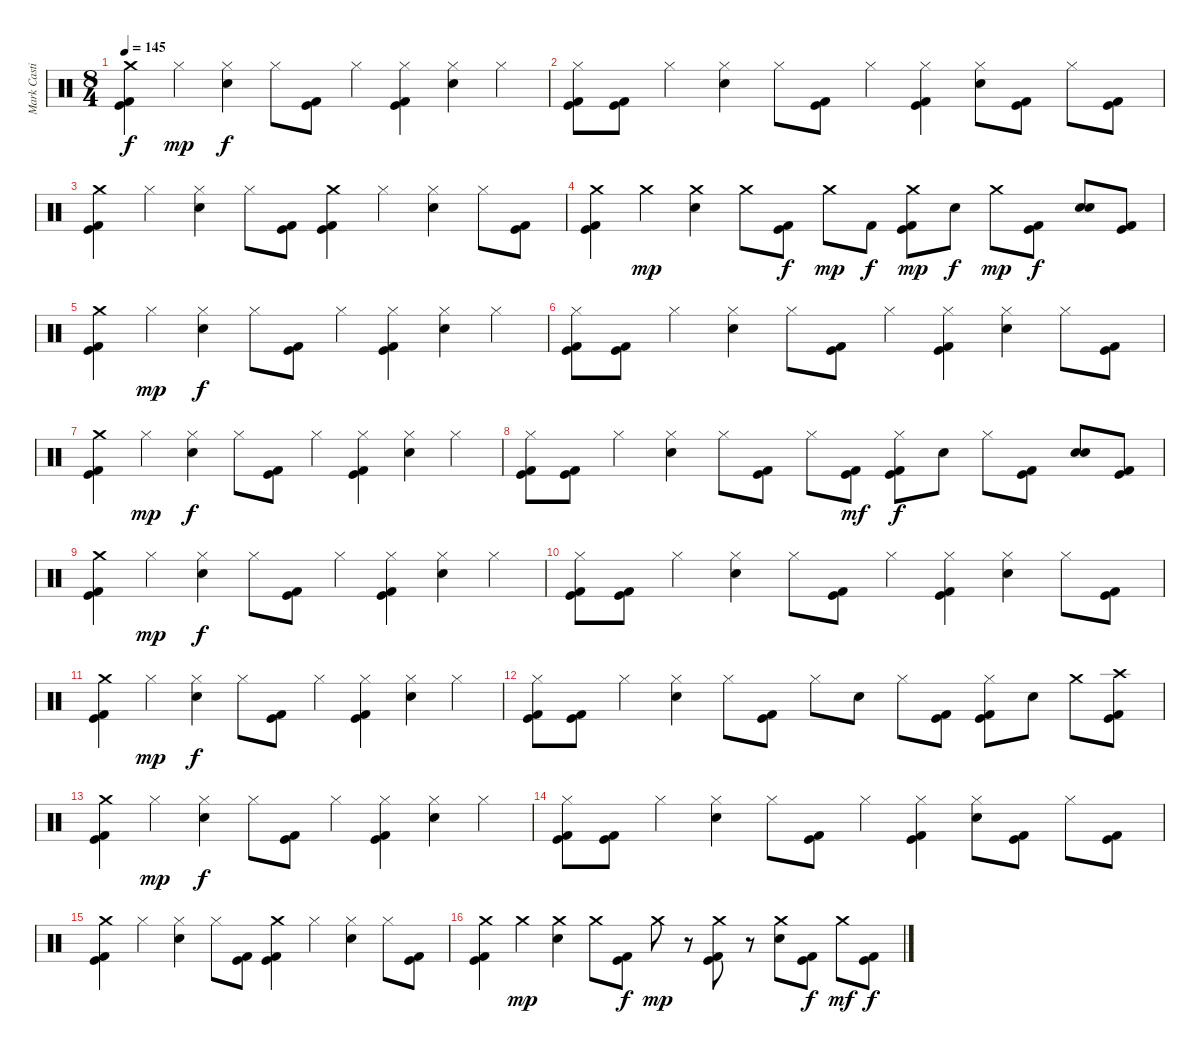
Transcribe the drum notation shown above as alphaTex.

\track ("Mark Castillo" "Mark Casti") {instrument percussion}
\staff {score}
\articulation defaults
\ts (8 4)
\tempo 145
\clef neutral
\ks c
("Crash medium (hit)" "Kick (hit)" "Kick (hit) 2").4{dy f} "Hi-Hat (closed)".4{dy mp} ("Hi-Hat (closed)" "Electric Snare (hit)").4{dy f} "Hi-Hat (closed)".8 ("Kick (hit)" "Kick (hit) 2").8 "Hi-Hat (closed)".4 ("Hi-Hat (closed)" "Kick (hit)" "Kick (hit) 2").4 ("Hi-Hat (closed)" "Electric Snare (hit)").4 "Hi-Hat (closed)".4 |
("Hi-Hat (closed)" "Kick (hit)" "Kick (hit) 2").8 ("Kick (hit)" "Kick (hit) 2").8 "Hi-Hat (closed)".4 ("Hi-Hat (closed)" "Electric Snare (hit)").4 "Hi-Hat (closed)".8 ("Kick (hit)" "Kick (hit) 2").8 "Hi-Hat (closed)".4 ("Hi-Hat (closed)" "Kick (hit)" "Kick (hit) 2").4 ("Hi-Hat (closed)" "Electric Snare (hit)").8 ("Kick (hit)" "Kick (hit) 2").8 "Hi-Hat (closed)".8 ("Kick (hit)" "Kick (hit) 2").8 |
("Crash medium (hit)" "Kick (hit)" "Kick (hit) 2").4 "Hi-Hat (closed)".4 ("Hi-Hat (closed)" "Electric Snare (hit)").4 "Hi-Hat (closed)".8 ("Kick (hit)" "Kick (hit) 2").8 ("Crash medium (hit)" "Kick (hit)" "Kick (hit) 2").4 "Hi-Hat (closed)".4 ("Hi-Hat (closed)" "Electric Snare (hit)").4 "Hi-Hat (closed)".8 ("Kick (hit)" "Kick (hit) 2").8 |
("Crash medium (hit)" "Kick (hit)" "Kick (hit) 2").4 "Crash medium (hit)".4{dy mp} ("Crash medium (hit)" "Electric Snare (hit)").4 "Crash medium (hit)".8 ("Kick (hit)" "Kick (hit) 2").8{dy f} "Crash medium (hit)".8{dy mp} "Kick (hit) 2".8{dy f} ("Crash medium (hit)" "Kick (hit)" "Kick (hit) 2").8{dy mp} "Electric Snare (hit)".8{dy f} "Crash medium (hit)".8{dy mp} ("Kick (hit)" "Kick (hit) 2").8{dy f} ("Electric Snare (hit)" "Electric Snare (hit)").8{bu 240} ("Kick (hit)" "Kick (hit) 2").8 |
("Crash medium (hit)" "Kick (hit)" "Kick (hit) 2").4 "Hi-Hat (closed)".4{dy mp} ("Hi-Hat (closed)" "Electric Snare (hit)").4{dy f} "Hi-Hat (closed)".8 ("Kick (hit)" "Kick (hit) 2").8 "Hi-Hat (closed)".4 ("Hi-Hat (closed)" "Kick (hit)" "Kick (hit) 2").4 ("Hi-Hat (closed)" "Electric Snare (hit)").4 "Hi-Hat (closed)".4 |
("Hi-Hat (closed)" "Kick (hit)" "Kick (hit) 2").8 ("Kick (hit)" "Kick (hit) 2").8 "Hi-Hat (closed)".4 ("Hi-Hat (closed)" "Electric Snare (hit)").4 "Hi-Hat (closed)".8 ("Kick (hit)" "Kick (hit) 2").8 "Hi-Hat (closed)".4 ("Hi-Hat (closed)" "Kick (hit)" "Kick (hit) 2").4 ("Hi-Hat (closed)" "Electric Snare (hit)").4 "Hi-Hat (closed)".8 ("Kick (hit)" "Kick (hit) 2").8 |
("Crash medium (hit)" "Kick (hit)" "Kick (hit) 2").4 "Hi-Hat (closed)".4{dy mp} ("Hi-Hat (closed)" "Electric Snare (hit)").4{dy f} "Hi-Hat (closed)".8 ("Kick (hit)" "Kick (hit) 2").8 "Hi-Hat (closed)".4 ("Hi-Hat (closed)" "Kick (hit)" "Kick (hit) 2").4 ("Hi-Hat (closed)" "Electric Snare (hit)").4 "Hi-Hat (closed)".4 |
("Hi-Hat (closed)" "Kick (hit)" "Kick (hit) 2").8 ("Kick (hit)" "Kick (hit) 2").8 "Hi-Hat (closed)".4 ("Hi-Hat (closed)" "Electric Snare (hit)").4 "Hi-Hat (closed)".8 ("Kick (hit)" "Kick (hit) 2").8 "Hi-Hat (closed)".8 ("Kick (hit)" "Kick (hit) 2").8{dy mf} ("Hi-Hat (closed)" "Kick (hit)" "Kick (hit) 2").8{dy f} "Electric Snare (hit)".8 "Hi-Hat (closed)".8 ("Kick (hit)" "Kick (hit) 2").8 ("Electric Snare (hit)" "Electric Snare (hit)").8{bu 240} ("Kick (hit)" "Kick (hit) 2").8 |
("Crash medium (hit)" "Kick (hit)" "Kick (hit) 2").4 "Hi-Hat (closed)".4{dy mp} ("Hi-Hat (closed)" "Electric Snare (hit)").4{dy f} "Hi-Hat (closed)".8 ("Kick (hit)" "Kick (hit) 2").8 "Hi-Hat (closed)".4 ("Hi-Hat (closed)" "Kick (hit)" "Kick (hit) 2").4 ("Hi-Hat (closed)" "Electric Snare (hit)").4 "Hi-Hat (closed)".4 |
("Hi-Hat (closed)" "Kick (hit)" "Kick (hit) 2").8 ("Kick (hit)" "Kick (hit) 2").8 "Hi-Hat (closed)".4 ("Hi-Hat (closed)" "Electric Snare (hit)").4 "Hi-Hat (closed)".8 ("Kick (hit)" "Kick (hit) 2").8 "Hi-Hat (closed)".4 ("Hi-Hat (closed)" "Kick (hit)" "Kick (hit) 2").4 ("Hi-Hat (closed)" "Electric Snare (hit)").4 "Hi-Hat (closed)".8 ("Kick (hit)" "Kick (hit) 2").8 |
("Crash medium (hit)" "Kick (hit)" "Kick (hit) 2").4 "Hi-Hat (closed)".4{dy mp} ("Hi-Hat (closed)" "Electric Snare (hit)").4{dy f} "Hi-Hat (closed)".8 ("Kick (hit)" "Kick (hit) 2").8 "Hi-Hat (closed)".4 ("Hi-Hat (closed)" "Kick (hit)" "Kick (hit) 2").4 ("Hi-Hat (closed)" "Electric Snare (hit)").4 "Hi-Hat (closed)".4 |
("Hi-Hat (closed)" "Kick (hit)" "Kick (hit) 2").8 ("Kick (hit)" "Kick (hit) 2").8 "Hi-Hat (closed)".4 ("Hi-Hat (closed)" "Electric Snare (hit)").4 "Hi-Hat (closed)".8 ("Kick (hit)" "Kick (hit) 2").8 "Hi-Hat (closed)".8 "Electric Snare (hit)".8 "Hi-Hat (closed)".8 ("Kick (hit)" "Kick (hit) 2").8 ("Hi-Hat (closed)" "Kick (hit)" "Kick (hit) 2").8 "Electric Snare (hit)".8 "Crash medium (hit)".8 ("Crash high (hit)" "Kick (hit)" "Kick (hit) 2").8 |
("Crash medium (hit)" "Kick (hit)" "Kick (hit) 2").4 "Hi-Hat (closed)".4{dy mp} ("Hi-Hat (closed)" "Electric Snare (hit)").4{dy f} "Hi-Hat (closed)".8 ("Kick (hit)" "Kick (hit) 2").8 "Hi-Hat (closed)".4 ("Hi-Hat (closed)" "Kick (hit)" "Kick (hit) 2").4 ("Hi-Hat (closed)" "Electric Snare (hit)").4 "Hi-Hat (closed)".4 |
("Hi-Hat (closed)" "Kick (hit)" "Kick (hit) 2").8 ("Kick (hit)" "Kick (hit) 2").8 "Hi-Hat (closed)".4 ("Hi-Hat (closed)" "Electric Snare (hit)").4 "Hi-Hat (closed)".8 ("Kick (hit)" "Kick (hit) 2").8 "Hi-Hat (closed)".4 ("Hi-Hat (closed)" "Kick (hit)" "Kick (hit) 2").4 ("Hi-Hat (closed)" "Electric Snare (hit)").8 ("Kick (hit)" "Kick (hit) 2").8 "Hi-Hat (closed)".8 ("Kick (hit)" "Kick (hit) 2").8 |
("Crash medium (hit)" "Kick (hit)" "Kick (hit) 2").4 "Hi-Hat (closed)".4 ("Hi-Hat (closed)" "Electric Snare (hit)").4 "Hi-Hat (closed)".8 ("Kick (hit)" "Kick (hit) 2").8 ("Crash medium (hit)" "Kick (hit)" "Kick (hit) 2").4 "Hi-Hat (closed)".4 ("Hi-Hat (closed)" "Electric Snare (hit)").4 "Hi-Hat (closed)".8 ("Kick (hit)" "Kick (hit) 2").8 |
("Crash medium (hit)" "Kick (hit)" "Kick (hit) 2").4 "Crash medium (hit)".4{dy mp} ("Crash medium (hit)" "Electric Snare (hit)").4 "Crash medium (hit)".8 ("Kick (hit)" "Kick (hit) 2").8{dy f} "Crash medium (hit)".8{dy mp} r.8 ("Crash medium (hit)" "Kick (hit)" "Kick (hit) 2").8 r.8 ("Crash medium (hit)" "Electric Snare (hit)").8 ("Kick (hit)" "Kick (hit) 2").8{dy f} "Crash medium (hit)".8{dy mf} ("Kick (hit)" "Kick (hit) 2").8{dy f}
